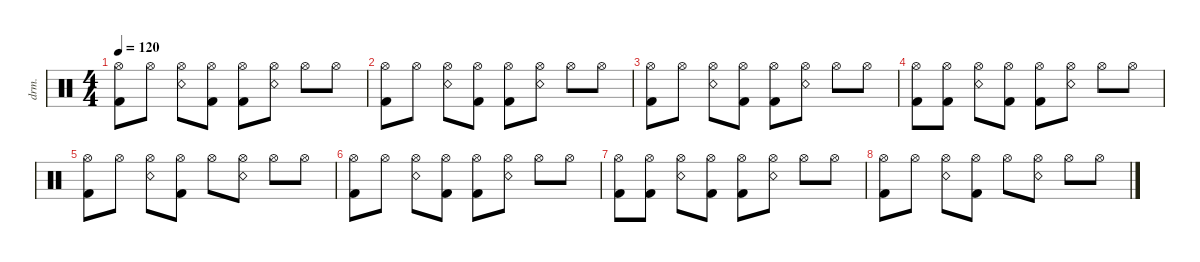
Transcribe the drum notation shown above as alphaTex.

\defaultSystemsLayout 4
\hideDynamics
\bracketExtendMode nobrackets
\otherSystemsTrackNameOrientation horizontal
\track ("Drumkit" "drm.") {instrument percussion}
\staff {score}
\articulation defaults
\ts (4 4)
\beaming (8 2 2 2 2)
\tempo 120
\clef neutral
\ks c
("Kick (hit) 2" "Hi-Hat (open)").8{dy mf beam Down} "Hi-Hat (open)".8{beam Down} ("Hi-Hat (open)" "Snare (rim shot)").8{beam Down} ("Hi-Hat (open)" "Kick (hit) 2").8{beam Down} ("Hi-Hat (open)" "Kick (hit) 2").8{beam Down} ("Hi-Hat (open)" "Snare (rim shot)").8{beam Down} "Hi-Hat (open)".8{beam Down} "Hi-Hat (open)".8{beam Down} |
("Kick (hit) 2" "Hi-Hat (open)").8{beam Down} "Hi-Hat (open)".8{beam Down} ("Hi-Hat (open)" "Snare (rim shot)").8{beam Down} ("Hi-Hat (open)" "Kick (hit) 2").8{beam Down} ("Hi-Hat (open)" "Kick (hit) 2").8{beam Down} ("Hi-Hat (open)" "Snare (rim shot)").8{beam Down} "Hi-Hat (open)".8{beam Down} "Hi-Hat (open)".8{beam Down} |
("Kick (hit) 2" "Hi-Hat (open)").8{beam Down} "Hi-Hat (open)".8{beam Down} ("Hi-Hat (open)" "Snare (rim shot)").8{beam Down} ("Hi-Hat (open)" "Kick (hit) 2").8{beam Down} ("Hi-Hat (open)" "Kick (hit) 2").8{beam Down} ("Hi-Hat (open)" "Snare (rim shot)").8{beam Down} "Hi-Hat (open)".8{beam Down} "Hi-Hat (open)".8{beam Down} |
("Kick (hit) 2" "Hi-Hat (open)").8{beam Down} ("Hi-Hat (open)" "Kick (hit) 2").8{beam Down} ("Hi-Hat (open)" "Snare (rim shot)").8{beam Down} ("Hi-Hat (open)" "Kick (hit) 2").8{beam Down} ("Hi-Hat (open)" "Kick (hit) 2").8{beam Down} ("Hi-Hat (open)" "Snare (rim shot)").8{beam Down} "Hi-Hat (open)".8{beam Down} "Hi-Hat (open)".8{beam Down} |
("Kick (hit) 2" "Hi-Hat (open)").8{beam Down} "Hi-Hat (open)".8{beam Down} ("Hi-Hat (open)" "Snare (rim shot)").8{beam Down} ("Hi-Hat (open)" "Kick (hit) 2").8{beam Down} "Hi-Hat (open)".8{beam Down} ("Hi-Hat (open)" "Snare (rim shot)").8{beam Down} "Hi-Hat (open)".8{beam Down} "Hi-Hat (open)".8{beam Down} |
("Kick (hit) 2" "Hi-Hat (open)").8{beam Down} "Hi-Hat (open)".8{beam Down} ("Hi-Hat (open)" "Snare (rim shot)").8{beam Down} ("Hi-Hat (open)" "Kick (hit) 2").8{beam Down} ("Hi-Hat (open)" "Kick (hit) 2").8{beam Down} ("Hi-Hat (open)" "Snare (rim shot)").8{beam Down} "Hi-Hat (open)".8{beam Down} "Hi-Hat (open)".8{beam Down} |
("Kick (hit) 2" "Hi-Hat (open)").8{beam Down} ("Hi-Hat (open)" "Kick (hit) 2").8{beam Down} ("Hi-Hat (open)" "Snare (rim shot)").8{beam Down} ("Hi-Hat (open)" "Kick (hit) 2").8{beam Down} ("Hi-Hat (open)" "Kick (hit) 2").8{beam Down} ("Hi-Hat (open)" "Snare (rim shot)").8{beam Down} "Hi-Hat (open)".8{beam Down} "Hi-Hat (open)".8{beam Down} |
("Kick (hit) 2" "Hi-Hat (open)").8{beam Down} "Hi-Hat (open)".8{beam Down} ("Hi-Hat (open)" "Snare (rim shot)").8{beam Down} ("Hi-Hat (open)" "Kick (hit) 2").8{beam Down} "Hi-Hat (open)".8{beam Down} ("Hi-Hat (open)" "Snare (rim shot)").8{beam Down} "Hi-Hat (open)".8{beam Down} "Hi-Hat (open)".8{beam Down}
